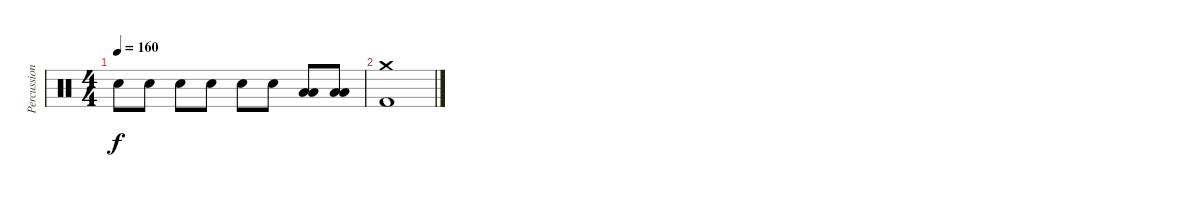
\track ("Percussion" "Percussion") {instrument percussion}
\staff {score}
\articulation defaults
\ts (4 4)
\tempo 160
\clef neutral
\ks c "Snare (hit) 2".8{dy f} "Snare (hit) 2".8 "Snare (hit) 2".8 "Snare (hit) 2".8 "Snare (hit) 2".8 "Snare (hit) 2".8
("Low Floor Tom (hit)" "Low Tom (hit)").8 ("Low Floor Tom (hit)" "Low Tom (hit)").8 |
("Kick (hit) 2" "Crash medium (hit)").1
